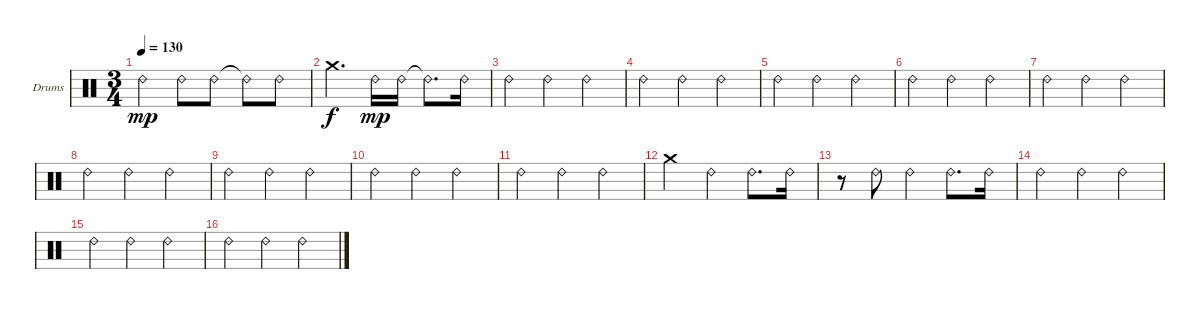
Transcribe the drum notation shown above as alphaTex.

\bracketExtendMode groupsimilarinstruments
\firstSystemTrackNameOrientation horizontal
\otherSystemsTrackNameOrientation horizontal
\track ("OH" "Drums") {instrument percussion}
\staff {score}
\articulation defaults
\ts (3 4)
\tempo 130
\clef neutral
\ks c "Ride (bell) 2".4{dy mp} "Ride (bell) 2".8 "Ride (bell) 2".8 "Ride (bell) 2"{t}.8 "Ride (bell) 2".8
|
"Crash medium (hit)".4{d dy f} "Ride (bell) 2".16{dy mp} "Ride (bell) 2".16 "Ride (bell) 2"{t}.8{d} "Ride (bell) 2".16 |
"Ride (bell) 2".4 "Ride (bell) 2".4 "Ride (bell) 2".4 |
"Ride (bell) 2".4 "Ride (bell) 2".4 "Ride (bell) 2".4 |
"Ride (bell) 2".4 "Ride (bell) 2".4 "Ride (bell) 2".4 |
"Ride (bell) 2".4 "Ride (bell) 2".4 "Ride (bell) 2".4 |
"Ride (bell) 2".4 "Ride (bell) 2".4 "Ride (bell) 2".4 |
"Ride (bell) 2".4 "Ride (bell) 2".4 "Ride (bell) 2".4 |
"Ride (bell) 2".4 "Ride (bell) 2".4 "Ride (bell) 2".4 |
"Ride (bell) 2".4 "Ride (bell) 2".4 "Ride (bell) 2".4 |
"Ride (bell) 2".4 "Ride (bell) 2".4 "Ride (bell) 2".4 |
"Crash medium (hit)".4 "Ride (bell) 2".4 "Ride (bell) 2".8{d} "Ride (bell) 2".16 |
r.8 "Ride (bell) 2".8 "Ride (bell) 2".4 "Ride (bell) 2".8{d} "Ride (bell) 2".16 |
"Ride (bell) 2".4 "Ride (bell) 2".4 "Ride (bell) 2".4 |
"Ride (bell) 2".4 "Ride (bell) 2".4 "Ride (bell) 2".4 |
"Ride (bell) 2".4 "Ride (bell) 2".4 "Ride (bell) 2".4
